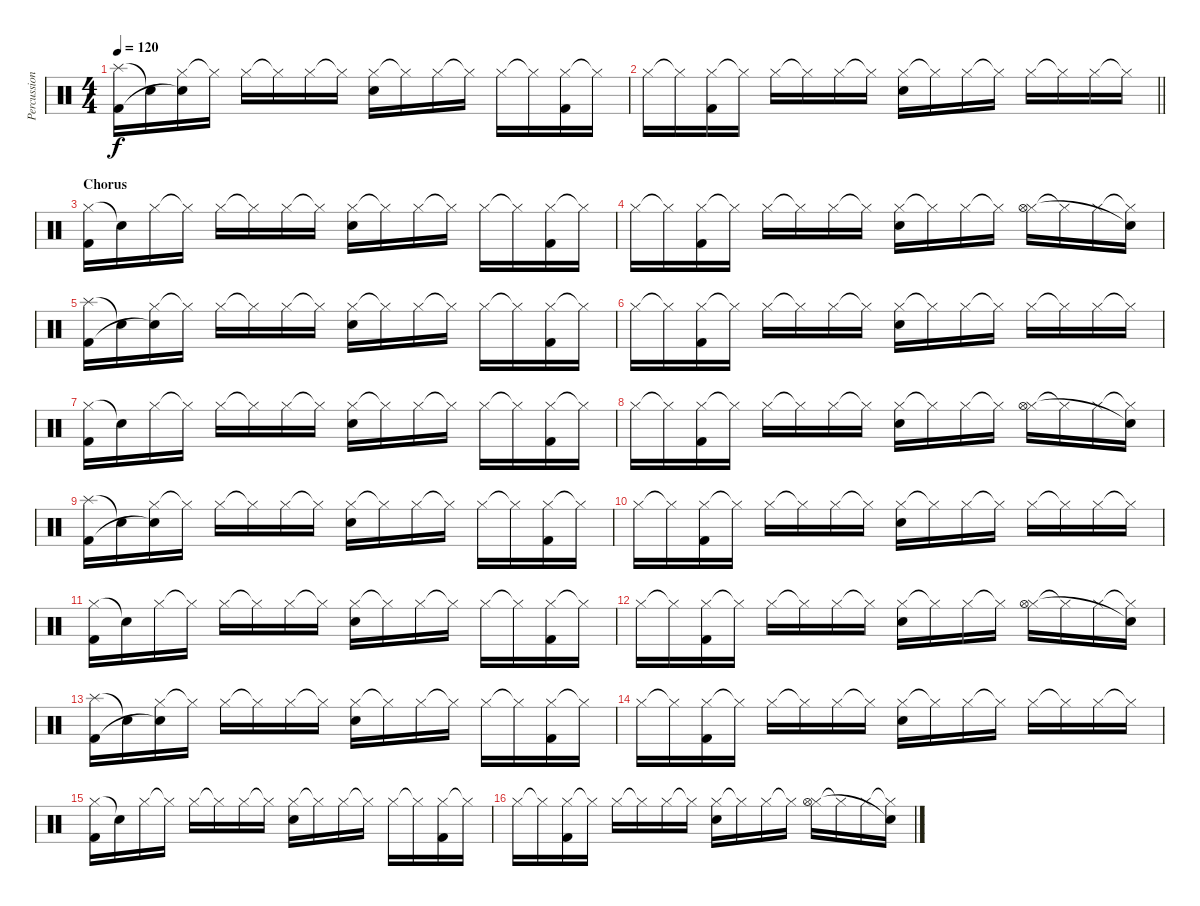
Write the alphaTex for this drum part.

\track ("Percussion" "Percussion") {instrument percussion}
\staff {score}
\articulation defaults
\ts (4 4)
\tempo 120
\clef neutral
\ks c
("Splash (hit)" "Kick (hit) 2").16{dy f} "Snare (hit)"{t}.16 ("Hi-Hat (closed)" "Snare (hit)"{t}).16 "Hi-Hat (closed)"{t}.16 "Hi-Hat (closed)".16 "Hi-Hat (closed)"{t}.16 "Hi-Hat (closed)".16 "Hi-Hat (closed)"{t}.16 ("Hi-Hat (closed)" "Snare (hit) 2").16 "Hi-Hat (closed)"{t}.16 "Hi-Hat (closed)".16 "Hi-Hat (closed)"{t}.16 "Hi-Hat (closed)".16 "Hi-Hat (closed)"{t}.16 ("Hi-Hat (closed)" "Kick (hit) 2").16 "Hi-Hat (closed)"{t}.16 |
\barLineRight lightlight "Hi-Hat (closed)".16 "Hi-Hat (closed)"{t}.16
("Hi-Hat (closed)" "Kick (hit) 2").16 "Hi-Hat (closed)"{t}.16 "Hi-Hat (closed)".16 "Hi-Hat (closed)"{t}.16 "Hi-Hat (closed)".16 "Hi-Hat (closed)"{t}.16 ("Hi-Hat (closed)" "Snare (hit) 2").16 "Hi-Hat (closed)"{t}.16 "Hi-Hat (closed)".16 "Hi-Hat (closed)"{t}.16 "Hi-Hat (closed)".16 "Hi-Hat (closed)"{t}.16 "Hi-Hat (closed)".16 "Hi-Hat (closed)"{t}.16 |
\section ("" "Chorus")
("Hi-Hat (closed)" "Kick (hit) 2").16 "Snare (hit)"{t}.16 "Hi-Hat (closed)".16 "Hi-Hat (closed)"{t}.16 "Hi-Hat (closed)".16 "Hi-Hat (closed)"{t}.16 "Hi-Hat (closed)".16 "Hi-Hat (closed)"{t}.16 ("Hi-Hat (closed)" "Snare (hit) 2").16 "Hi-Hat (closed)"{t}.16 "Hi-Hat (closed)".16 "Hi-Hat (closed)"{t}.16 "Hi-Hat (closed)".16 "Hi-Hat (closed)"{t}.16 ("Hi-Hat (closed)" "Kick (hit) 2").16 "Hi-Hat (closed)"{t}.16 |
"Hi-Hat (closed)".16 "Hi-Hat (closed)"{t}.16 ("Hi-Hat (closed)" "Kick (hit) 2").16 "Hi-Hat (closed)"{t}.16 "Hi-Hat (closed)".16 "Hi-Hat (closed)"{t}.16 "Hi-Hat (closed)".16 "Hi-Hat (closed)"{t}.16 ("Hi-Hat (closed)" "Snare (hit) 2").16 "Hi-Hat (closed)"{t}.16 "Hi-Hat (closed)".16 "Hi-Hat (closed)"{t}.16 ("Hi-Hat (closed)" "Hi-Hat (open)").16 "Hi-Hat (closed)"{t}.16 "Hi-Hat (closed)".16 ("Hi-Hat (closed)"{t} "Snare (hit)"{t}).16 |
("Splash (hit)" "Kick (hit) 2").16 "Snare (hit)"{t}.16 ("Hi-Hat (closed)" "Snare (hit)"{t}).16 "Hi-Hat (closed)"{t}.16 "Hi-Hat (closed)".16 "Hi-Hat (closed)"{t}.16 "Hi-Hat (closed)".16 "Hi-Hat (closed)"{t}.16 ("Hi-Hat (closed)" "Snare (hit) 2").16 "Hi-Hat (closed)"{t}.16 "Hi-Hat (closed)".16 "Hi-Hat (closed)"{t}.16 "Hi-Hat (closed)".16 "Hi-Hat (closed)"{t}.16 ("Hi-Hat (closed)" "Kick (hit) 2").16 "Hi-Hat (closed)"{t}.16 |
"Hi-Hat (closed)".16 "Hi-Hat (closed)"{t}.16 ("Hi-Hat (closed)" "Kick (hit) 2").16 "Hi-Hat (closed)"{t}.16 "Hi-Hat (closed)".16 "Hi-Hat (closed)"{t}.16 "Hi-Hat (closed)".16 "Hi-Hat (closed)"{t}.16 ("Hi-Hat (closed)" "Snare (hit) 2").16 "Hi-Hat (closed)"{t}.16 "Hi-Hat (closed)".16 "Hi-Hat (closed)"{t}.16 "Hi-Hat (closed)".16 "Hi-Hat (closed)"{t}.16 "Hi-Hat (closed)".16 "Hi-Hat (closed)"{t}.16 |
("Hi-Hat (closed)" "Kick (hit) 2").16 "Snare (hit)"{t}.16 "Hi-Hat (closed)".16 "Hi-Hat (closed)"{t}.16 "Hi-Hat (closed)".16 "Hi-Hat (closed)"{t}.16 "Hi-Hat (closed)".16 "Hi-Hat (closed)"{t}.16 ("Hi-Hat (closed)" "Snare (hit) 2").16 "Hi-Hat (closed)"{t}.16 "Hi-Hat (closed)".16 "Hi-Hat (closed)"{t}.16 "Hi-Hat (closed)".16 "Hi-Hat (closed)"{t}.16 ("Hi-Hat (closed)" "Kick (hit) 2").16 "Hi-Hat (closed)"{t}.16 |
"Hi-Hat (closed)".16 "Hi-Hat (closed)"{t}.16 ("Hi-Hat (closed)" "Kick (hit) 2").16 "Hi-Hat (closed)"{t}.16 "Hi-Hat (closed)".16 "Hi-Hat (closed)"{t}.16 "Hi-Hat (closed)".16 "Hi-Hat (closed)"{t}.16 ("Hi-Hat (closed)" "Snare (hit) 2").16 "Hi-Hat (closed)"{t}.16 "Hi-Hat (closed)".16 "Hi-Hat (closed)"{t}.16 ("Hi-Hat (closed)" "Hi-Hat (open)").16 "Hi-Hat (closed)"{t}.16 "Hi-Hat (closed)".16 ("Hi-Hat (closed)"{t} "Snare (hit)"{t}).16 |
("Splash (hit)" "Kick (hit) 2").16 "Snare (hit)"{t}.16 ("Hi-Hat (closed)" "Snare (hit)"{t}).16 "Hi-Hat (closed)"{t}.16 "Hi-Hat (closed)".16 "Hi-Hat (closed)"{t}.16 "Hi-Hat (closed)".16 "Hi-Hat (closed)"{t}.16 ("Hi-Hat (closed)" "Snare (hit) 2").16 "Hi-Hat (closed)"{t}.16 "Hi-Hat (closed)".16 "Hi-Hat (closed)"{t}.16 "Hi-Hat (closed)".16 "Hi-Hat (closed)"{t}.16 ("Hi-Hat (closed)" "Kick (hit) 2").16 "Hi-Hat (closed)"{t}.16 |
"Hi-Hat (closed)".16 "Hi-Hat (closed)"{t}.16 ("Hi-Hat (closed)" "Kick (hit) 2").16 "Hi-Hat (closed)"{t}.16 "Hi-Hat (closed)".16 "Hi-Hat (closed)"{t}.16 "Hi-Hat (closed)".16 "Hi-Hat (closed)"{t}.16 ("Hi-Hat (closed)" "Snare (hit) 2").16 "Hi-Hat (closed)"{t}.16 "Hi-Hat (closed)".16 "Hi-Hat (closed)"{t}.16 "Hi-Hat (closed)".16 "Hi-Hat (closed)"{t}.16 "Hi-Hat (closed)".16 "Hi-Hat (closed)"{t}.16 |
("Hi-Hat (closed)" "Kick (hit) 2").16 "Snare (hit)"{t}.16 "Hi-Hat (closed)".16 "Hi-Hat (closed)"{t}.16 "Hi-Hat (closed)".16 "Hi-Hat (closed)"{t}.16 "Hi-Hat (closed)".16 "Hi-Hat (closed)"{t}.16 ("Hi-Hat (closed)" "Snare (hit) 2").16 "Hi-Hat (closed)"{t}.16 "Hi-Hat (closed)".16 "Hi-Hat (closed)"{t}.16 "Hi-Hat (closed)".16 "Hi-Hat (closed)"{t}.16 ("Hi-Hat (closed)" "Kick (hit) 2").16 "Hi-Hat (closed)"{t}.16 |
"Hi-Hat (closed)".16 "Hi-Hat (closed)"{t}.16 ("Hi-Hat (closed)" "Kick (hit) 2").16 "Hi-Hat (closed)"{t}.16 "Hi-Hat (closed)".16 "Hi-Hat (closed)"{t}.16 "Hi-Hat (closed)".16 "Hi-Hat (closed)"{t}.16 ("Hi-Hat (closed)" "Snare (hit) 2").16 "Hi-Hat (closed)"{t}.16 "Hi-Hat (closed)".16 "Hi-Hat (closed)"{t}.16 ("Hi-Hat (closed)" "Hi-Hat (open)").16 "Hi-Hat (closed)"{t}.16 "Hi-Hat (closed)".16 ("Hi-Hat (closed)"{t} "Snare (hit)"{t}).16 |
("Splash (hit)" "Kick (hit) 2").16 "Snare (hit)"{t}.16 ("Hi-Hat (closed)" "Snare (hit)"{t}).16 "Hi-Hat (closed)"{t}.16 "Hi-Hat (closed)".16 "Hi-Hat (closed)"{t}.16 "Hi-Hat (closed)".16 "Hi-Hat (closed)"{t}.16 ("Hi-Hat (closed)" "Snare (hit) 2").16 "Hi-Hat (closed)"{t}.16 "Hi-Hat (closed)".16 "Hi-Hat (closed)"{t}.16 "Hi-Hat (closed)".16 "Hi-Hat (closed)"{t}.16 ("Hi-Hat (closed)" "Kick (hit) 2").16 "Hi-Hat (closed)"{t}.16 |
"Hi-Hat (closed)".16 "Hi-Hat (closed)"{t}.16 ("Hi-Hat (closed)" "Kick (hit) 2").16 "Hi-Hat (closed)"{t}.16 "Hi-Hat (closed)".16 "Hi-Hat (closed)"{t}.16 "Hi-Hat (closed)".16 "Hi-Hat (closed)"{t}.16 ("Hi-Hat (closed)" "Snare (hit) 2").16 "Hi-Hat (closed)"{t}.16 "Hi-Hat (closed)".16 "Hi-Hat (closed)"{t}.16 "Hi-Hat (closed)".16 "Hi-Hat (closed)"{t}.16 "Hi-Hat (closed)".16 "Hi-Hat (closed)"{t}.16 |
("Hi-Hat (closed)" "Kick (hit) 2").16 "Snare (hit)"{t}.16 "Hi-Hat (closed)".16 "Hi-Hat (closed)"{t}.16 "Hi-Hat (closed)".16 "Hi-Hat (closed)"{t}.16 "Hi-Hat (closed)".16 "Hi-Hat (closed)"{t}.16 ("Hi-Hat (closed)" "Snare (hit) 2").16 "Hi-Hat (closed)"{t}.16 "Hi-Hat (closed)".16 "Hi-Hat (closed)"{t}.16 "Hi-Hat (closed)".16 "Hi-Hat (closed)"{t}.16 ("Hi-Hat (closed)" "Kick (hit) 2").16 "Hi-Hat (closed)"{t}.16 |
"Hi-Hat (closed)".16 "Hi-Hat (closed)"{t}.16 ("Hi-Hat (closed)" "Kick (hit) 2").16 "Hi-Hat (closed)"{t}.16 "Hi-Hat (closed)".16 "Hi-Hat (closed)"{t}.16 "Hi-Hat (closed)".16 "Hi-Hat (closed)"{t}.16 ("Hi-Hat (closed)" "Snare (hit) 2").16 "Hi-Hat (closed)"{t}.16 "Hi-Hat (closed)".16 "Hi-Hat (closed)"{t}.16 ("Hi-Hat (closed)" "Hi-Hat (open)").16 "Hi-Hat (closed)"{t}.16 "Hi-Hat (closed)".16 ("Hi-Hat (closed)"{t} "Snare (hit)"{t}).16
